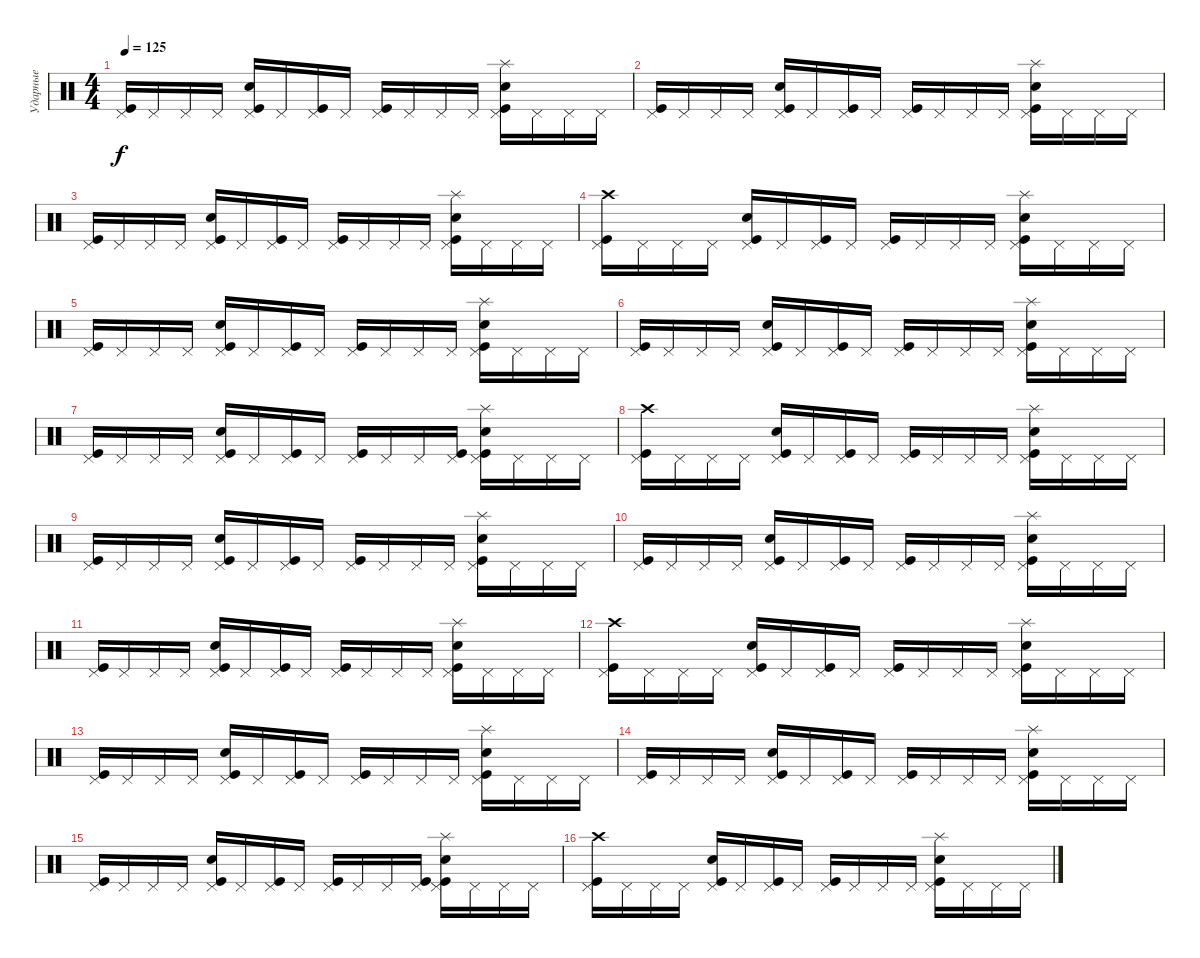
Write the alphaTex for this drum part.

\track ("Ударные" "Ударные") {instrument percussion}
\staff {score}
\articulation defaults
\ts (4 4)
\tempo 125
\clef neutral
\ks c
("Pedal Hi-Hat (hit)" "Kick (hit)").16{dy f} "Pedal Hi-Hat (hit)".16 "Pedal Hi-Hat (hit)".16 "Pedal Hi-Hat (hit)".16 ("Pedal Hi-Hat (hit)" "Kick (hit)" "Snare (hit) 2").16 "Pedal Hi-Hat (hit)".16 ("Pedal Hi-Hat (hit)" "Kick (hit)").16 "Pedal Hi-Hat (hit)".16 ("Pedal Hi-Hat (hit)" "Kick (hit)").16 "Pedal Hi-Hat (hit)".16 "Pedal Hi-Hat (hit)".16 "Pedal Hi-Hat (hit)".16 ("Pedal Hi-Hat (hit)" "Kick (hit)" "Snare (hit) 2" "Splash (hit)").16 "Pedal Hi-Hat (hit)".16 "Pedal Hi-Hat (hit)".16 "Pedal Hi-Hat (hit)".16 |
("Pedal Hi-Hat (hit)" "Kick (hit)").16 "Pedal Hi-Hat (hit)".16 "Pedal Hi-Hat (hit)".16 "Pedal Hi-Hat (hit)".16 ("Pedal Hi-Hat (hit)" "Kick (hit)" "Snare (hit) 2").16 "Pedal Hi-Hat (hit)".16 ("Pedal Hi-Hat (hit)" "Kick (hit)").16 "Pedal Hi-Hat (hit)".16 ("Pedal Hi-Hat (hit)" "Kick (hit)").16 "Pedal Hi-Hat (hit)".16 "Pedal Hi-Hat (hit)".16 "Pedal Hi-Hat (hit)".16 ("Pedal Hi-Hat (hit)" "Kick (hit)" "Snare (hit) 2" "Splash (hit)").16 "Pedal Hi-Hat (hit)".16 "Pedal Hi-Hat (hit)".16 "Pedal Hi-Hat (hit)".16 |
("Pedal Hi-Hat (hit)" "Kick (hit)").16 "Pedal Hi-Hat (hit)".16 "Pedal Hi-Hat (hit)".16 "Pedal Hi-Hat (hit)".16 ("Pedal Hi-Hat (hit)" "Kick (hit)" "Snare (hit) 2").16 "Pedal Hi-Hat (hit)".16 ("Pedal Hi-Hat (hit)" "Kick (hit)").16 "Pedal Hi-Hat (hit)".16 ("Pedal Hi-Hat (hit)" "Kick (hit)").16 "Pedal Hi-Hat (hit)".16 "Pedal Hi-Hat (hit)".16 "Pedal Hi-Hat (hit)".16 ("Pedal Hi-Hat (hit)" "Kick (hit)" "Snare (hit) 2" "Splash (hit)").16 "Pedal Hi-Hat (hit)".16 "Pedal Hi-Hat (hit)".16 "Pedal Hi-Hat (hit)".16 |
("Pedal Hi-Hat (hit)" "Kick (hit)" "Crash high (hit)").16 "Pedal Hi-Hat (hit)".16 "Pedal Hi-Hat (hit)".16 "Pedal Hi-Hat (hit)".16 ("Pedal Hi-Hat (hit)" "Kick (hit)" "Snare (hit) 2").16 "Pedal Hi-Hat (hit)".16 ("Pedal Hi-Hat (hit)" "Kick (hit)").16 "Pedal Hi-Hat (hit)".16 ("Pedal Hi-Hat (hit)" "Kick (hit)").16 "Pedal Hi-Hat (hit)".16 "Pedal Hi-Hat (hit)".16 "Pedal Hi-Hat (hit)".16 ("Pedal Hi-Hat (hit)" "Kick (hit)" "Snare (hit) 2" "Splash (hit)").16 "Pedal Hi-Hat (hit)".16 "Pedal Hi-Hat (hit)".16 "Pedal Hi-Hat (hit)".16 |
("Pedal Hi-Hat (hit)" "Kick (hit)").16 "Pedal Hi-Hat (hit)".16 "Pedal Hi-Hat (hit)".16 "Pedal Hi-Hat (hit)".16 ("Pedal Hi-Hat (hit)" "Kick (hit)" "Snare (hit) 2").16 "Pedal Hi-Hat (hit)".16 ("Pedal Hi-Hat (hit)" "Kick (hit)").16 "Pedal Hi-Hat (hit)".16 ("Pedal Hi-Hat (hit)" "Kick (hit)").16 "Pedal Hi-Hat (hit)".16 "Pedal Hi-Hat (hit)".16 "Pedal Hi-Hat (hit)".16 ("Pedal Hi-Hat (hit)" "Kick (hit)" "Snare (hit) 2" "Splash (hit)").16 "Pedal Hi-Hat (hit)".16 "Pedal Hi-Hat (hit)".16 "Pedal Hi-Hat (hit)".16 |
("Pedal Hi-Hat (hit)" "Kick (hit)").16 "Pedal Hi-Hat (hit)".16 "Pedal Hi-Hat (hit)".16 "Pedal Hi-Hat (hit)".16 ("Pedal Hi-Hat (hit)" "Kick (hit)" "Snare (hit) 2").16 "Pedal Hi-Hat (hit)".16 ("Pedal Hi-Hat (hit)" "Kick (hit)").16 "Pedal Hi-Hat (hit)".16 ("Pedal Hi-Hat (hit)" "Kick (hit)").16 "Pedal Hi-Hat (hit)".16 "Pedal Hi-Hat (hit)".16 "Pedal Hi-Hat (hit)".16 ("Pedal Hi-Hat (hit)" "Kick (hit)" "Snare (hit) 2" "Splash (hit)").16 "Pedal Hi-Hat (hit)".16 "Pedal Hi-Hat (hit)".16 "Pedal Hi-Hat (hit)".16 |
("Pedal Hi-Hat (hit)" "Kick (hit)").16 "Pedal Hi-Hat (hit)".16 "Pedal Hi-Hat (hit)".16 "Pedal Hi-Hat (hit)".16 ("Pedal Hi-Hat (hit)" "Kick (hit)" "Snare (hit) 2").16 "Pedal Hi-Hat (hit)".16 ("Pedal Hi-Hat (hit)" "Kick (hit)").16 "Pedal Hi-Hat (hit)".16 ("Pedal Hi-Hat (hit)" "Kick (hit)").16 "Pedal Hi-Hat (hit)".16 "Pedal Hi-Hat (hit)".16 ("Pedal Hi-Hat (hit)" "Kick (hit)").16 ("Pedal Hi-Hat (hit)" "Kick (hit)" "Snare (hit) 2" "Splash (hit)").16 "Pedal Hi-Hat (hit)".16 "Pedal Hi-Hat (hit)".16 "Pedal Hi-Hat (hit)".16 |
("Pedal Hi-Hat (hit)" "Kick (hit)" "Crash high (hit)").16 "Pedal Hi-Hat (hit)".16 "Pedal Hi-Hat (hit)".16 "Pedal Hi-Hat (hit)".16 ("Pedal Hi-Hat (hit)" "Kick (hit)" "Snare (hit) 2").16 "Pedal Hi-Hat (hit)".16 ("Pedal Hi-Hat (hit)" "Kick (hit)").16 "Pedal Hi-Hat (hit)".16 ("Pedal Hi-Hat (hit)" "Kick (hit)").16 "Pedal Hi-Hat (hit)".16 "Pedal Hi-Hat (hit)".16 "Pedal Hi-Hat (hit)".16 ("Pedal Hi-Hat (hit)" "Kick (hit)" "Snare (hit) 2" "Splash (hit)").16 "Pedal Hi-Hat (hit)".16 "Pedal Hi-Hat (hit)".16 "Pedal Hi-Hat (hit)".16 |
("Pedal Hi-Hat (hit)" "Kick (hit)").16 "Pedal Hi-Hat (hit)".16 "Pedal Hi-Hat (hit)".16 "Pedal Hi-Hat (hit)".16 ("Pedal Hi-Hat (hit)" "Kick (hit)" "Snare (hit) 2").16 "Pedal Hi-Hat (hit)".16 ("Pedal Hi-Hat (hit)" "Kick (hit)").16 "Pedal Hi-Hat (hit)".16 ("Pedal Hi-Hat (hit)" "Kick (hit)").16 "Pedal Hi-Hat (hit)".16 "Pedal Hi-Hat (hit)".16 "Pedal Hi-Hat (hit)".16 ("Pedal Hi-Hat (hit)" "Kick (hit)" "Snare (hit) 2" "Splash (hit)").16 "Pedal Hi-Hat (hit)".16 "Pedal Hi-Hat (hit)".16 "Pedal Hi-Hat (hit)".16 |
("Pedal Hi-Hat (hit)" "Kick (hit)").16 "Pedal Hi-Hat (hit)".16 "Pedal Hi-Hat (hit)".16 "Pedal Hi-Hat (hit)".16 ("Pedal Hi-Hat (hit)" "Kick (hit)" "Snare (hit) 2").16 "Pedal Hi-Hat (hit)".16 ("Pedal Hi-Hat (hit)" "Kick (hit)").16 "Pedal Hi-Hat (hit)".16 ("Pedal Hi-Hat (hit)" "Kick (hit)").16 "Pedal Hi-Hat (hit)".16 "Pedal Hi-Hat (hit)".16 "Pedal Hi-Hat (hit)".16 ("Pedal Hi-Hat (hit)" "Kick (hit)" "Snare (hit) 2" "Splash (hit)").16 "Pedal Hi-Hat (hit)".16 "Pedal Hi-Hat (hit)".16 "Pedal Hi-Hat (hit)".16 |
("Pedal Hi-Hat (hit)" "Kick (hit)").16 "Pedal Hi-Hat (hit)".16 "Pedal Hi-Hat (hit)".16 "Pedal Hi-Hat (hit)".16 ("Pedal Hi-Hat (hit)" "Kick (hit)" "Snare (hit) 2").16 "Pedal Hi-Hat (hit)".16 ("Pedal Hi-Hat (hit)" "Kick (hit)").16 "Pedal Hi-Hat (hit)".16 ("Pedal Hi-Hat (hit)" "Kick (hit)").16 "Pedal Hi-Hat (hit)".16 "Pedal Hi-Hat (hit)".16 "Pedal Hi-Hat (hit)".16 ("Pedal Hi-Hat (hit)" "Kick (hit)" "Snare (hit) 2" "Splash (hit)").16 "Pedal Hi-Hat (hit)".16 "Pedal Hi-Hat (hit)".16 "Pedal Hi-Hat (hit)".16 |
("Pedal Hi-Hat (hit)" "Kick (hit)" "Crash high (hit)").16 "Pedal Hi-Hat (hit)".16 "Pedal Hi-Hat (hit)".16 "Pedal Hi-Hat (hit)".16 ("Pedal Hi-Hat (hit)" "Kick (hit)" "Snare (hit) 2").16 "Pedal Hi-Hat (hit)".16 ("Pedal Hi-Hat (hit)" "Kick (hit)").16 "Pedal Hi-Hat (hit)".16 ("Pedal Hi-Hat (hit)" "Kick (hit)").16 "Pedal Hi-Hat (hit)".16 "Pedal Hi-Hat (hit)".16 "Pedal Hi-Hat (hit)".16 ("Pedal Hi-Hat (hit)" "Kick (hit)" "Snare (hit) 2" "Splash (hit)").16 "Pedal Hi-Hat (hit)".16 "Pedal Hi-Hat (hit)".16 "Pedal Hi-Hat (hit)".16 |
("Pedal Hi-Hat (hit)" "Kick (hit)").16 "Pedal Hi-Hat (hit)".16 "Pedal Hi-Hat (hit)".16 "Pedal Hi-Hat (hit)".16 ("Pedal Hi-Hat (hit)" "Kick (hit)" "Snare (hit) 2").16 "Pedal Hi-Hat (hit)".16 ("Pedal Hi-Hat (hit)" "Kick (hit)").16 "Pedal Hi-Hat (hit)".16 ("Pedal Hi-Hat (hit)" "Kick (hit)").16 "Pedal Hi-Hat (hit)".16 "Pedal Hi-Hat (hit)".16 "Pedal Hi-Hat (hit)".16 ("Pedal Hi-Hat (hit)" "Kick (hit)" "Snare (hit) 2" "Splash (hit)").16 "Pedal Hi-Hat (hit)".16 "Pedal Hi-Hat (hit)".16 "Pedal Hi-Hat (hit)".16 |
("Pedal Hi-Hat (hit)" "Kick (hit)").16 "Pedal Hi-Hat (hit)".16 "Pedal Hi-Hat (hit)".16 "Pedal Hi-Hat (hit)".16 ("Pedal Hi-Hat (hit)" "Kick (hit)" "Snare (hit) 2").16 "Pedal Hi-Hat (hit)".16 ("Pedal Hi-Hat (hit)" "Kick (hit)").16 "Pedal Hi-Hat (hit)".16 ("Pedal Hi-Hat (hit)" "Kick (hit)").16 "Pedal Hi-Hat (hit)".16 "Pedal Hi-Hat (hit)".16 "Pedal Hi-Hat (hit)".16 ("Pedal Hi-Hat (hit)" "Kick (hit)" "Snare (hit) 2" "Splash (hit)").16 "Pedal Hi-Hat (hit)".16 "Pedal Hi-Hat (hit)".16 "Pedal Hi-Hat (hit)".16 |
("Pedal Hi-Hat (hit)" "Kick (hit)").16 "Pedal Hi-Hat (hit)".16 "Pedal Hi-Hat (hit)".16 "Pedal Hi-Hat (hit)".16 ("Pedal Hi-Hat (hit)" "Kick (hit)" "Snare (hit) 2").16 "Pedal Hi-Hat (hit)".16 ("Pedal Hi-Hat (hit)" "Kick (hit)").16 "Pedal Hi-Hat (hit)".16 ("Pedal Hi-Hat (hit)" "Kick (hit)").16 "Pedal Hi-Hat (hit)".16 "Pedal Hi-Hat (hit)".16 ("Pedal Hi-Hat (hit)" "Kick (hit)").16 ("Pedal Hi-Hat (hit)" "Kick (hit)" "Snare (hit) 2" "Splash (hit)").16 "Pedal Hi-Hat (hit)".16 "Pedal Hi-Hat (hit)".16 "Pedal Hi-Hat (hit)".16 |
("Pedal Hi-Hat (hit)" "Kick (hit)" "Crash high (hit)").16 "Pedal Hi-Hat (hit)".16 "Pedal Hi-Hat (hit)".16 "Pedal Hi-Hat (hit)".16 ("Pedal Hi-Hat (hit)" "Kick (hit)" "Snare (hit) 2").16 "Pedal Hi-Hat (hit)".16 ("Pedal Hi-Hat (hit)" "Kick (hit)").16 "Pedal Hi-Hat (hit)".16 ("Pedal Hi-Hat (hit)" "Kick (hit)").16 "Pedal Hi-Hat (hit)".16 "Pedal Hi-Hat (hit)".16 "Pedal Hi-Hat (hit)".16 ("Pedal Hi-Hat (hit)" "Kick (hit)" "Snare (hit) 2" "Splash (hit)").16 "Pedal Hi-Hat (hit)".16 "Pedal Hi-Hat (hit)".16 "Pedal Hi-Hat (hit)".16
